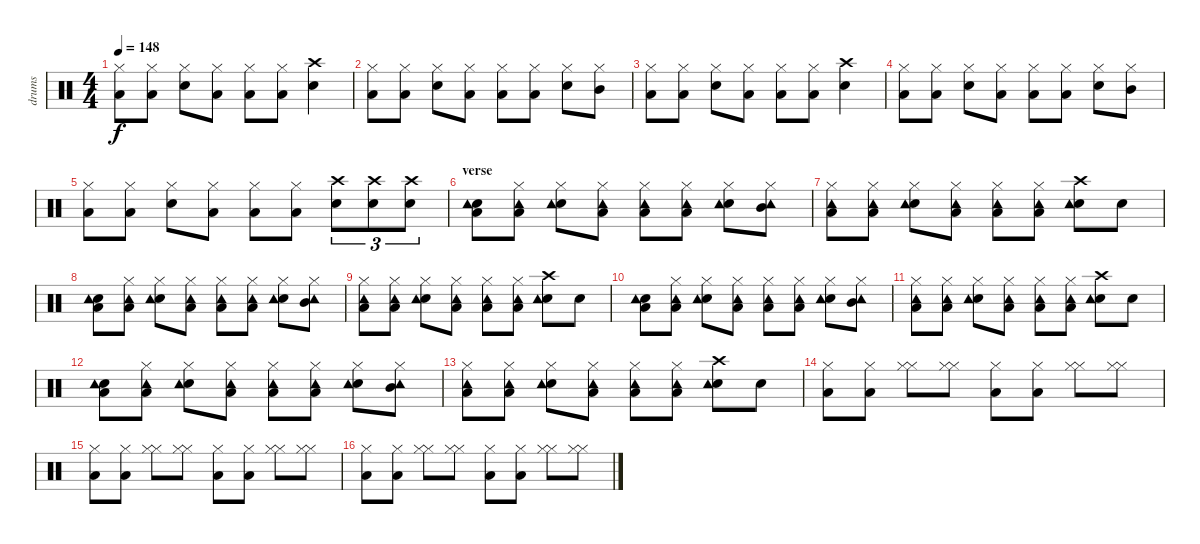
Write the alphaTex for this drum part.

\track ("drums" "drums") {instrument percussion}
\staff {score}
\articulation defaults
\ts (4 4)
\tempo 148
\clef neutral
\ks c
("Hi-Hat (closed)" "Low Tom (hit)").8{dy f} ("Hi-Hat (closed)" "Low Tom (hit)").8 ("Snare (hit) 2" "Hi-Hat (closed)").8 ("Hi-Hat (closed)" "Low Tom (hit)").8 ("Hi-Hat (closed)" "Low Tom (hit)").8 ("Hi-Hat (closed)" "Low Tom (hit)").8 ("Crash high (hit)" "Snare (hit) 2").4 |
("Hi-Hat (closed)" "Low Tom (hit)").8 ("Hi-Hat (closed)" "Low Tom (hit)").8 ("Snare (hit) 2" "Hi-Hat (closed)").8 ("Hi-Hat (closed)" "Low Tom (hit)").8 ("Hi-Hat (closed)" "Low Tom (hit)").8 ("Hi-Hat (closed)" "Low Tom (hit)").8 ("Snare (hit) 2" "Hi-Hat (closed)").8 ("Mid Tom (hit)" "Hi-Hat (closed)").8 |
("Hi-Hat (closed)" "Low Tom (hit)").8 ("Hi-Hat (closed)" "Low Tom (hit)").8 ("Snare (hit) 2" "Hi-Hat (closed)").8 ("Hi-Hat (closed)" "Low Tom (hit)").8 ("Hi-Hat (closed)" "Low Tom (hit)").8 ("Hi-Hat (closed)" "Low Tom (hit)").8 ("Crash high (hit)" "Snare (hit) 2").4 |
("Hi-Hat (closed)" "Low Tom (hit)").8 ("Hi-Hat (closed)" "Low Tom (hit)").8 ("Snare (hit) 2" "Hi-Hat (closed)").8 ("Hi-Hat (closed)" "Low Tom (hit)").8 ("Hi-Hat (closed)" "Low Tom (hit)").8 ("Hi-Hat (closed)" "Low Tom (hit)").8 ("Snare (hit) 2" "Hi-Hat (closed)").8 ("Mid Tom (hit)" "Hi-Hat (closed)").8 |
("Hi-Hat (closed)" "Low Tom (hit)").8 ("Hi-Hat (closed)" "Low Tom (hit)").8 ("Snare (hit) 2" "Hi-Hat (closed)").8 ("Hi-Hat (closed)" "Low Tom (hit)").8 ("Hi-Hat (closed)" "Low Tom (hit)").8 ("Hi-Hat (closed)" "Low Tom (hit)").8 ("Crash high (hit)" "Snare (hit) 2").8{tu (3 2)} ("Crash high (hit)" "Snare (hit) 2").8{tu (3 2)} ("Crash high (hit)" "Snare (hit) 2").8{tu (3 2)} |
\section ("" "verse")
("Snare (hit) 2" "Low Tom (hit)" "Tambourine (hit)").8 ("Hi-Hat (closed)" "Low Tom (hit)" "Tambourine (hit)").8 ("Snare (hit) 2" "Hi-Hat (closed)" "Tambourine (hit)").8 ("Hi-Hat (closed)" "Low Tom (hit)" "Tambourine (hit)").8 ("Hi-Hat (closed)" "Low Tom (hit)" "Tambourine (hit)").8 ("Hi-Hat (closed)" "Low Tom (hit)" "Tambourine (hit)").8 ("Snare (hit) 2" "Hi-Hat (closed)" "Tambourine (hit)").8 ("Mid Tom (hit)" "Hi-Hat (closed)" "Tambourine (hit)").8 |
("Hi-Hat (closed)" "Low Tom (hit)" "Tambourine (hit)").8 ("Hi-Hat (closed)" "Low Tom (hit)" "Tambourine (hit)").8 ("Snare (hit) 2" "Hi-Hat (closed)" "Tambourine (hit)").8 ("Hi-Hat (closed)" "Low Tom (hit)" "Tambourine (hit)").8 ("Hi-Hat (closed)" "Low Tom (hit)" "Tambourine (hit)").8 ("Hi-Hat (closed)" "Low Tom (hit)" "Tambourine (hit)").8 ("Crash high (hit)" "Snare (hit) 2" "Tambourine (hit)").8 "Snare (hit) 2".8 |
("Snare (hit) 2" "Low Tom (hit)" "Tambourine (hit)").8 ("Hi-Hat (closed)" "Low Tom (hit)" "Tambourine (hit)").8 ("Snare (hit) 2" "Hi-Hat (closed)" "Tambourine (hit)").8 ("Hi-Hat (closed)" "Low Tom (hit)" "Tambourine (hit)").8 ("Hi-Hat (closed)" "Low Tom (hit)" "Tambourine (hit)").8 ("Hi-Hat (closed)" "Low Tom (hit)" "Tambourine (hit)").8 ("Snare (hit) 2" "Hi-Hat (closed)" "Tambourine (hit)").8 ("Mid Tom (hit)" "Hi-Hat (closed)" "Tambourine (hit)").8 |
("Hi-Hat (closed)" "Low Tom (hit)" "Tambourine (hit)").8 ("Hi-Hat (closed)" "Low Tom (hit)" "Tambourine (hit)").8 ("Snare (hit) 2" "Hi-Hat (closed)" "Tambourine (hit)").8 ("Hi-Hat (closed)" "Low Tom (hit)" "Tambourine (hit)").8 ("Hi-Hat (closed)" "Low Tom (hit)" "Tambourine (hit)").8 ("Hi-Hat (closed)" "Low Tom (hit)" "Tambourine (hit)").8 ("Crash high (hit)" "Snare (hit) 2" "Tambourine (hit)").8 "Snare (hit) 2".8 |
("Snare (hit) 2" "Low Tom (hit)" "Tambourine (hit)").8 ("Hi-Hat (closed)" "Low Tom (hit)" "Tambourine (hit)").8 ("Snare (hit) 2" "Hi-Hat (closed)" "Tambourine (hit)").8 ("Hi-Hat (closed)" "Low Tom (hit)" "Tambourine (hit)").8 ("Hi-Hat (closed)" "Low Tom (hit)" "Tambourine (hit)").8 ("Hi-Hat (closed)" "Low Tom (hit)" "Tambourine (hit)").8 ("Snare (hit) 2" "Hi-Hat (closed)" "Tambourine (hit)").8 ("Mid Tom (hit)" "Hi-Hat (closed)" "Tambourine (hit)").8 |
("Hi-Hat (closed)" "Low Tom (hit)" "Tambourine (hit)").8 ("Hi-Hat (closed)" "Low Tom (hit)" "Tambourine (hit)").8 ("Snare (hit) 2" "Hi-Hat (closed)" "Tambourine (hit)").8 ("Hi-Hat (closed)" "Low Tom (hit)" "Tambourine (hit)").8 ("Hi-Hat (closed)" "Low Tom (hit)" "Tambourine (hit)").8 ("Hi-Hat (closed)" "Low Tom (hit)" "Tambourine (hit)").8 ("Crash high (hit)" "Snare (hit) 2" "Tambourine (hit)").8 "Snare (hit) 2".8 |
("Snare (hit) 2" "Low Tom (hit)" "Tambourine (hit)").8 ("Hi-Hat (closed)" "Low Tom (hit)" "Tambourine (hit)").8 ("Snare (hit) 2" "Hi-Hat (closed)" "Tambourine (hit)").8 ("Hi-Hat (closed)" "Low Tom (hit)" "Tambourine (hit)").8 ("Hi-Hat (closed)" "Low Tom (hit)" "Tambourine (hit)").8 ("Hi-Hat (closed)" "Low Tom (hit)" "Tambourine (hit)").8 ("Snare (hit) 2" "Hi-Hat (closed)" "Tambourine (hit)").8 ("Mid Tom (hit)" "Hi-Hat (closed)" "Tambourine (hit)").8 |
("Hi-Hat (closed)" "Low Tom (hit)" "Tambourine (hit)").8 ("Hi-Hat (closed)" "Low Tom (hit)" "Tambourine (hit)").8 ("Snare (hit) 2" "Hi-Hat (closed)" "Tambourine (hit)").8 ("Hi-Hat (closed)" "Low Tom (hit)" "Tambourine (hit)").8 ("Hi-Hat (closed)" "Low Tom (hit)" "Tambourine (hit)").8 ("Hi-Hat (closed)" "Low Tom (hit)" "Tambourine (hit)").8 ("Crash high (hit)" "Snare (hit) 2" "Tambourine (hit)").8 "Snare (hit) 2".8 |
("Hi-Hat (closed)" "Low Tom (hit)").8 ("Hi-Hat (closed)" "Low Tom (hit)").8 ("Hi-Hat (closed)" "Hi-Hat (closed)").8 ("Hi-Hat (closed)" "Hi-Hat (closed)").8 ("Hi-Hat (closed)" "Low Tom (hit)").8 ("Hi-Hat (closed)" "Low Tom (hit)").8 ("Hi-Hat (closed)" "Hi-Hat (closed)").8 ("Hi-Hat (closed)" "Hi-Hat (closed)").8 |
("Hi-Hat (closed)" "Low Tom (hit)").8 ("Hi-Hat (closed)" "Low Tom (hit)").8 ("Hi-Hat (closed)" "Hi-Hat (closed)").8 ("Hi-Hat (closed)" "Hi-Hat (closed)").8 ("Hi-Hat (closed)" "Low Tom (hit)").8 ("Hi-Hat (closed)" "Low Tom (hit)").8 ("Hi-Hat (closed)" "Hi-Hat (closed)").8 ("Hi-Hat (closed)" "Hi-Hat (closed)").8 |
("Hi-Hat (closed)" "Low Tom (hit)").8 ("Hi-Hat (closed)" "Low Tom (hit)").8 ("Hi-Hat (closed)" "Hi-Hat (closed)").8 ("Hi-Hat (closed)" "Hi-Hat (closed)").8 ("Hi-Hat (closed)" "Low Tom (hit)").8 ("Hi-Hat (closed)" "Low Tom (hit)").8 ("Hi-Hat (closed)" "Hi-Hat (closed)").8 ("Hi-Hat (closed)" "Hi-Hat (closed)").8
